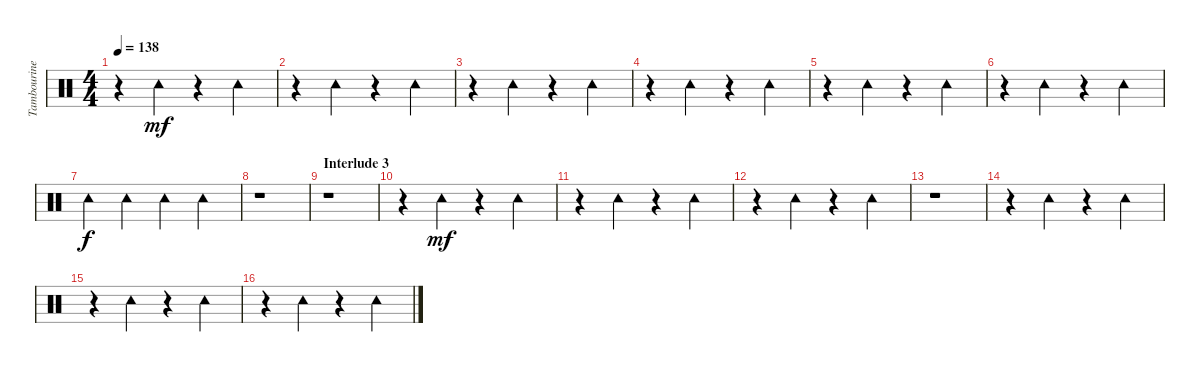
\track ("Tambourine" "Tambourine") {instrument percussion}
\staff {score}
\articulation defaults
\ts (4 4)
\tempo 138
\clef neutral
\ks c
r.4{dy mf} "Tambourine (hit)".4 r.4 "Tambourine (hit)".4 |
r.4 "Tambourine (hit)".4 r.4 "Tambourine (hit)".4 |
r.4 "Tambourine (hit)".4 r.4 "Tambourine (hit)".4 |
r.4 "Tambourine (hit)".4 r.4 "Tambourine (hit)".4 |
r.4 "Tambourine (hit)".4 r.4 "Tambourine (hit)".4 |
r.4 "Tambourine (hit)".4 r.4 "Tambourine (hit)".4 |
"Tambourine (hit)".4{dy f} "Tambourine (hit)".4 "Tambourine (hit)".4 "Tambourine (hit)".4 |
r.1 |
\section ("" "Interlude 3")
r.1 |
r.4 "Tambourine (hit)".4{dy mf} r.4 "Tambourine (hit)".4 |
r.4 "Tambourine (hit)".4 r.4 "Tambourine (hit)".4 |
r.4 "Tambourine (hit)".4 r.4 "Tambourine (hit)".4 |
r.1 |
r.4 "Tambourine (hit)".4 r.4 "Tambourine (hit)".4 |
r.4 "Tambourine (hit)".4 r.4 "Tambourine (hit)".4 |
r.4 "Tambourine (hit)".4 r.4 "Tambourine (hit)".4
